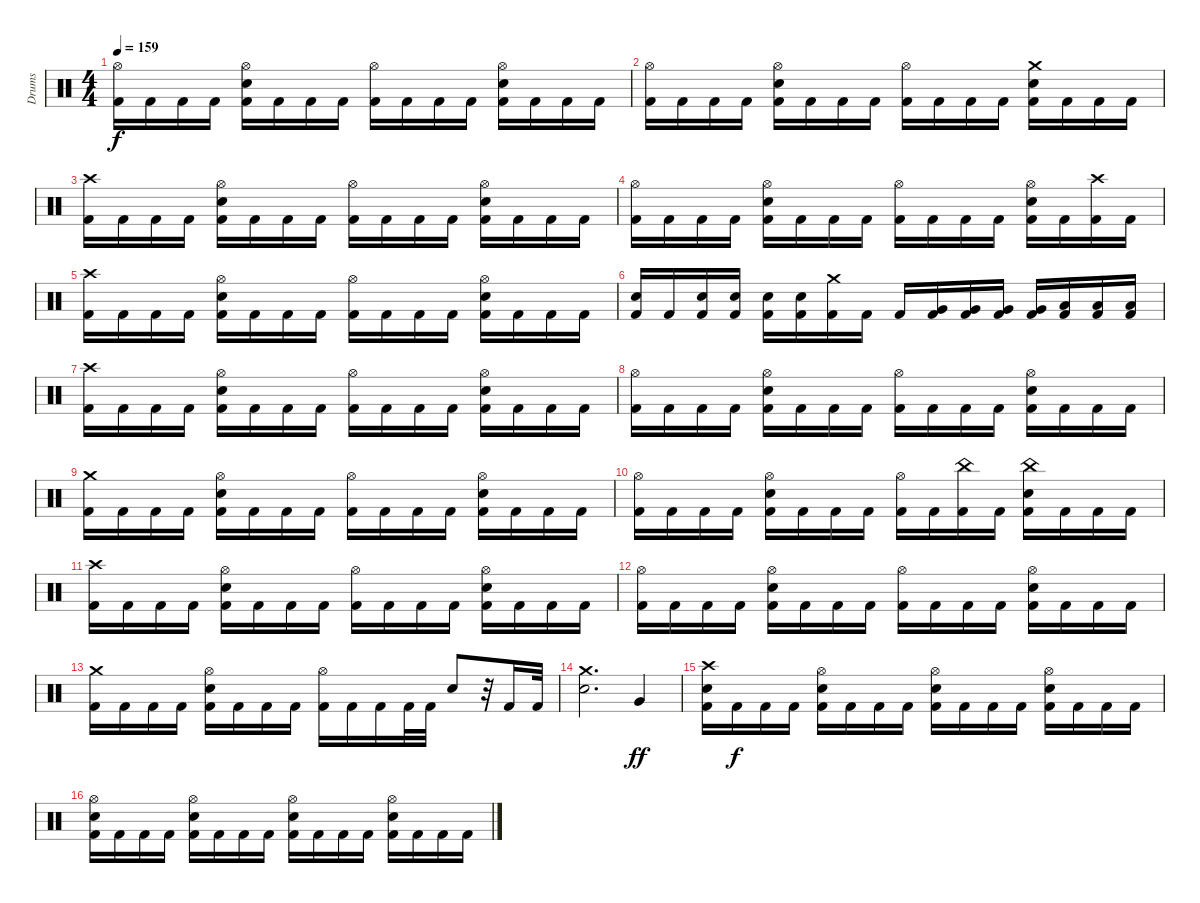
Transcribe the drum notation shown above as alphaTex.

\track ("Drums" "Drums") {instrument percussion}
\staff {score}
\articulation defaults
\ts (4 4)
\tempo 159
\clef neutral
\ks c
("Hi-Hat (open)" "Kick (hit) 2").16{dy f} "Kick (hit) 2".16 "Kick (hit) 2".16 "Kick (hit) 2".16 ("Hi-Hat (open)" "Snare (hit) 2" "Kick (hit) 2").16 "Kick (hit) 2".16 "Kick (hit) 2".16 "Kick (hit) 2".16 ("Hi-Hat (open)" "Kick (hit) 2").16 "Kick (hit) 2".16 "Kick (hit) 2".16 "Kick (hit) 2".16 ("Hi-Hat (open)" "Snare (hit) 2" "Kick (hit) 2").16 "Kick (hit) 2".16 "Kick (hit) 2".16 "Kick (hit) 2".16 |
("Hi-Hat (open)" "Kick (hit) 2").16 "Kick (hit) 2".16 "Kick (hit) 2".16 "Kick (hit) 2".16 ("Hi-Hat (open)" "Snare (hit) 2" "Kick (hit) 2").16 "Kick (hit) 2".16 "Kick (hit) 2".16 "Kick (hit) 2".16 ("Hi-Hat (open)" "Kick (hit) 2").16 "Kick (hit) 2".16 "Kick (hit) 2".16 "Kick (hit) 2".16 ("Crash medium (hit)" "Snare (hit) 2" "Kick (hit) 2").16 "Kick (hit) 2".16 "Kick (hit) 2".16 "Kick (hit) 2".16 |
("Crash high (hit)" "Kick (hit) 2").16 "Kick (hit) 2".16 "Kick (hit) 2".16 "Kick (hit) 2".16 ("Hi-Hat (open)" "Snare (hit) 2" "Kick (hit) 2").16 "Kick (hit) 2".16 "Kick (hit) 2".16 "Kick (hit) 2".16 ("Hi-Hat (open)" "Kick (hit) 2").16 "Kick (hit) 2".16 "Kick (hit) 2".16 "Kick (hit) 2".16 ("Hi-Hat (open)" "Snare (hit) 2" "Kick (hit) 2").16 "Kick (hit) 2".16 "Kick (hit) 2".16 "Kick (hit) 2".16 |
("Hi-Hat (open)" "Kick (hit) 2").16 "Kick (hit) 2".16 "Kick (hit) 2".16 "Kick (hit) 2".16 ("Hi-Hat (open)" "Snare (hit) 2" "Kick (hit) 2").16 "Kick (hit) 2".16 "Kick (hit) 2".16 "Kick (hit) 2".16 ("Hi-Hat (open)" "Kick (hit) 2").16 "Kick (hit) 2".16 "Kick (hit) 2".16 "Kick (hit) 2".16 ("Hi-Hat (open)" "Snare (hit) 2" "Kick (hit) 2").16 "Kick (hit) 2".16 ("Crash high (hit)" "Kick (hit) 2").16 "Kick (hit) 2".16 |
("Crash high (hit)" "Kick (hit) 2").16 "Kick (hit) 2".16 "Kick (hit) 2".16 "Kick (hit) 2".16 ("Hi-Hat (open)" "Snare (hit) 2" "Kick (hit) 2").16 "Kick (hit) 2".16 "Kick (hit) 2".16 "Kick (hit) 2".16 ("Hi-Hat (open)" "Kick (hit) 2").16 "Kick (hit) 2".16 "Kick (hit) 2".16 "Kick (hit) 2".16 ("Hi-Hat (open)" "Snare (hit) 2" "Kick (hit) 2").16 "Kick (hit) 2".16 "Kick (hit) 2".16 "Kick (hit) 2".16 |
("Snare (hit) 2" "Kick (hit) 2").16 "Kick (hit) 2".16 ("Snare (hit) 2" "Kick (hit) 2").16 ("Snare (hit) 2" "Kick (hit) 2").16 ("Snare (hit) 2" "Kick (hit) 2").16 ("Snare (hit) 2" "Kick (hit) 2").16 ("Crash medium (hit)" "Kick (hit) 2").16 "Kick (hit) 2".16 "Kick (hit) 2".16 ("Very Low Tom (hit)" "Kick (hit) 2").16 ("Very Low Tom (hit)" "Kick (hit) 2").16 ("Very Low Tom (hit)" "Kick (hit) 2").16 ("Very Low Tom (hit)" "Kick (hit) 2").16 ("Low Floor Tom (hit)" "Kick (hit) 2").16 ("Low Floor Tom (hit)" "Kick (hit) 2").16 ("Low Floor Tom (hit)" "Kick (hit) 2").16 |
("Crash high (hit)" "Kick (hit) 2").16 "Kick (hit) 2".16 "Kick (hit) 2".16 "Kick (hit) 2".16 ("Hi-Hat (open)" "Snare (hit) 2" "Kick (hit) 2").16 "Kick (hit) 2".16 "Kick (hit) 2".16 "Kick (hit) 2".16 ("Hi-Hat (open)" "Kick (hit) 2").16 "Kick (hit) 2".16 "Kick (hit) 2".16 "Kick (hit) 2".16 ("Hi-Hat (open)" "Snare (hit) 2" "Kick (hit) 2").16 "Kick (hit) 2".16 "Kick (hit) 2".16 "Kick (hit) 2".16 |
("Hi-Hat (open)" "Kick (hit) 2").16 "Kick (hit) 2".16 "Kick (hit) 2".16 "Kick (hit) 2".16 ("Hi-Hat (open)" "Snare (hit) 2" "Kick (hit) 2").16 "Kick (hit) 2".16 "Kick (hit) 2".16 "Kick (hit) 2".16 ("Hi-Hat (open)" "Kick (hit) 2").16 "Kick (hit) 2".16 "Kick (hit) 2".16 "Kick (hit) 2".16 ("Hi-Hat (open)" "Snare (hit) 2" "Kick (hit) 2").16 "Kick (hit) 2".16 "Kick (hit) 2".16 "Kick (hit) 2".16 |
("Crash medium (hit)" "Kick (hit) 2").16 "Kick (hit) 2".16 "Kick (hit) 2".16 "Kick (hit) 2".16 ("Hi-Hat (open)" "Snare (hit) 2" "Kick (hit) 2").16 "Kick (hit) 2".16 "Kick (hit) 2".16 "Kick (hit) 2".16 ("Hi-Hat (open)" "Kick (hit) 2").16 "Kick (hit) 2".16 "Kick (hit) 2".16 "Kick (hit) 2".16 ("Hi-Hat (open)" "Snare (hit) 2" "Kick (hit) 2").16 "Kick (hit) 2".16 "Kick (hit) 2".16 "Kick (hit) 2".16 |
("Hi-Hat (open)" "Kick (hit) 2").16 "Kick (hit) 2".16 "Kick (hit) 2".16 "Kick (hit) 2".16 ("Hi-Hat (open)" "Snare (hit) 2" "Kick (hit) 2").16 "Kick (hit) 2".16 "Kick (hit) 2".16 "Kick (hit) 2".16 ("Hi-Hat (open)" "Kick (hit) 2").16 "Kick (hit) 2".16 ("China (hit)" "Kick (hit) 2").16 "Kick (hit) 2".16 ("China (hit)" "Snare (hit) 2" "Kick (hit) 2").16 "Kick (hit) 2".16 "Kick (hit) 2".16 "Kick (hit) 2".16 |
("Crash high (hit)" "Kick (hit) 2").16 "Kick (hit) 2".16 "Kick (hit) 2".16 "Kick (hit) 2".16 ("Hi-Hat (open)" "Snare (hit) 2" "Kick (hit) 2").16 "Kick (hit) 2".16 "Kick (hit) 2".16 "Kick (hit) 2".16 ("Hi-Hat (open)" "Kick (hit) 2").16 "Kick (hit) 2".16 "Kick (hit) 2".16 "Kick (hit) 2".16 ("Hi-Hat (open)" "Snare (hit) 2" "Kick (hit) 2").16 "Kick (hit) 2".16 "Kick (hit) 2".16 "Kick (hit) 2".16 |
("Hi-Hat (open)" "Kick (hit) 2").16 "Kick (hit) 2".16 "Kick (hit) 2".16 "Kick (hit) 2".16 ("Hi-Hat (open)" "Snare (hit) 2" "Kick (hit) 2").16 "Kick (hit) 2".16 "Kick (hit) 2".16 "Kick (hit) 2".16 ("Hi-Hat (open)" "Kick (hit) 2").16 "Kick (hit) 2".16 "Kick (hit) 2".16 "Kick (hit) 2".16 ("Hi-Hat (open)" "Snare (hit) 2" "Kick (hit) 2").16 "Kick (hit) 2".16 "Kick (hit) 2".16 "Kick (hit) 2".16 |
("Crash medium (hit)" "Kick (hit) 2").16 "Kick (hit) 2".16 "Kick (hit) 2".16 "Kick (hit) 2".16 ("Hi-Hat (open)" "Snare (hit) 2" "Kick (hit) 2").16 "Kick (hit) 2".16 "Kick (hit) 2".16 "Kick (hit) 2".16 ("Hi-Hat (open)" "Kick (hit) 2").16 "Kick (hit) 2".16 "Kick (hit) 2".16 "Kick (hit) 2".32 "Kick (hit) 2".32 "Snare (hit) 2".8 r.32 "Kick (hit) 2".16 "Kick (hit) 2".32 |
("Crash medium (hit)" "Snare (hit) 2").2{d} "Very Low Tom (hit)".4{dy ff} |
("Crash high (hit)" "Snare (hit) 2" "Kick (hit) 2").16 "Kick (hit) 2".16{dy f} "Kick (hit) 2".16 "Kick (hit) 2".16 ("Hi-Hat (open)" "Snare (hit) 2" "Kick (hit) 2").16 "Kick (hit) 2".16 "Kick (hit) 2".16 "Kick (hit) 2".16 ("Hi-Hat (open)" "Snare (hit) 2" "Kick (hit) 2").16 "Kick (hit) 2".16 "Kick (hit) 2".16 "Kick (hit) 2".16 ("Hi-Hat (open)" "Snare (hit) 2" "Kick (hit) 2").16 "Kick (hit) 2".16 "Kick (hit) 2".16 "Kick (hit) 2".16 |
("Hi-Hat (open)" "Snare (hit) 2" "Kick (hit) 2").16 "Kick (hit) 2".16 "Kick (hit) 2".16 "Kick (hit) 2".16 ("Hi-Hat (open)" "Snare (hit) 2" "Kick (hit) 2").16 "Kick (hit) 2".16 "Kick (hit) 2".16 "Kick (hit) 2".16 ("Hi-Hat (open)" "Snare (hit) 2" "Kick (hit) 2").16 "Kick (hit) 2".16 "Kick (hit) 2".16 "Kick (hit) 2".16 ("Hi-Hat (open)" "Snare (hit) 2" "Kick (hit) 2").16 "Kick (hit) 2".16 "Kick (hit) 2".16 "Kick (hit) 2".16
